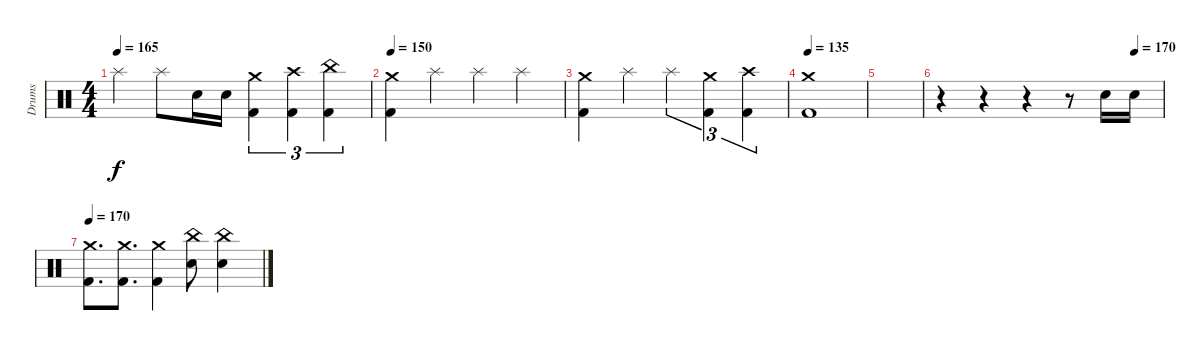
\track ("Drums" "Drums") {instrument percussion}
\staff {score}
\articulation defaults
\ts (4 4)
\tempo 165
\clef neutral
\ks c "Splash (hit)".4{dy f} "Splash (hit)".8 "Electric Snare (hit)".16 "Electric Snare (hit)".16
("Kick (hit) 2" "Crash medium (hit)").4{tu (3 2)} ("Kick (hit) 2" "Crash high (hit)").4{tu (3 2)} ("Kick (hit) 2" "China (hit)").4{tu (3 2)} |
\tempo 150
("Kick (hit) 2" "Crash medium (hit)").4 "Splash (hit)".4 "Splash (hit)".4 "Splash (hit)".4 |
("Kick (hit) 2" "Crash medium (hit)").4 "Splash (hit)".4 "Splash (hit)".4{tu (3 2)} ("Kick (hit) 2" "Crash medium (hit)").4{tu (3 2)} ("Kick (hit) 2" "Crash high (hit)").4{tu (3 2)} |
\tempo 135
("Kick (hit) 2" "Crash medium (hit)").1 |
|
\tempo (170 0.875)
r.4 r.4 r.4 r.8 "Electric Snare (hit)".16 "Electric Snare (hit)".16 |
\tempo 170
("Kick (hit) 2" "Crash medium (hit)").8{d} ("Kick (hit) 2" "Crash medium (hit)").8{d} ("Kick (hit) 2" "Crash medium (hit)").4 ("Electric Snare (hit)" "China (hit)").8 ("Electric Snare (hit)" "China (hit)").4
